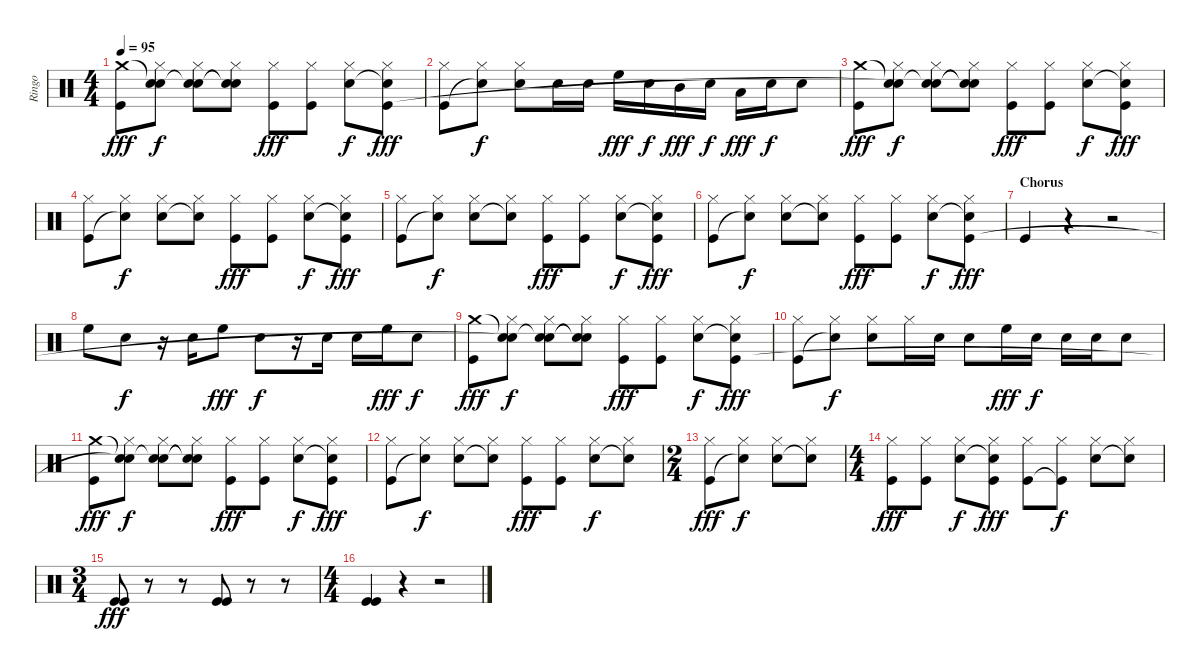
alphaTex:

\track ("Ringo" "Ringo") {instrument percussion}
\staff {score}
\articulation defaults
\ts (4 4)
\tempo 95
\clef neutral
\ks c
("Crash medium (hit)" "Kick (hit)").8{dy fff} ("Snare (hit)"{t} "Hi-Hat (closed)" "Snare (hit)").8{dy f} ("Snare (hit)"{t} "Hi-Hat (closed)" "Electric Snare (hit)").8 ("Snare (hit)"{t} "Hi-Hat (closed)" "Snare (hit)"{t}).8 ("Hi-Hat (closed)" "Kick (hit)").8{dy fff} ("Hi-Hat (closed)" "Kick (hit)").8 ("Hi-Hat (closed)" "Electric Snare (hit)").8{dy f} ("Hi-Hat (closed)" "Snare (hit)"{t} "Kick (hit)").8{dy fff} |
("Hi-Hat (closed)" "Kick (hit)").8 ("Hi-Hat (closed)" "Snare (hit)"{t}).8{dy f} ("Hi-Hat (closed)" "Electric Snare (hit)").8 "Electric Snare (hit)".16 "Electric Snare (hit)".16 "High Floor Tom (hit)".16{dy fff} "Electric Snare (hit)".16{dy f} "Mid Tom (hit)".16{dy fff} "Electric Snare (hit)".16{dy f} "Low Floor Tom (hit)".16{dy fff} "Electric Snare (hit)".16{dy f} "Electric Snare (hit)".8 |
("Crash medium (hit)" "Kick (hit)").8{dy fff} ("Snare (hit)"{t} "Hi-Hat (closed)" "Snare (hit)"{t}).8{dy f} ("Snare (hit)"{t} "Hi-Hat (closed)" "Electric Snare (hit)").8 ("Snare (hit)"{t} "Hi-Hat (closed)" "Snare (hit)"{t}).8 ("Hi-Hat (closed)" "Kick (hit)").8{dy fff} ("Hi-Hat (closed)" "Kick (hit)").8 ("Hi-Hat (closed)" "Electric Snare (hit)").8{dy f} ("Hi-Hat (closed)" "Snare (hit)"{t} "Kick (hit)").8{dy fff} |
("Hi-Hat (closed)" "Kick (hit)").8 ("Hi-Hat (closed)" "Snare (hit)"{t}).8{dy f} ("Hi-Hat (closed)" "Electric Snare (hit)").8 ("Hi-Hat (closed)" "Snare (hit)"{t}).8 ("Hi-Hat (closed)" "Kick (hit)").8{dy fff} ("Hi-Hat (closed)" "Kick (hit)").8 ("Hi-Hat (closed)" "Electric Snare (hit)").8{dy f} ("Hi-Hat (closed)" "Snare (hit)"{t} "Kick (hit)").8{dy fff} |
("Hi-Hat (closed)" "Kick (hit)").8 ("Hi-Hat (closed)" "Snare (hit)"{t}).8{dy f} ("Hi-Hat (closed)" "Electric Snare (hit)").8 ("Hi-Hat (closed)" "Snare (hit)"{t}).8 ("Hi-Hat (closed)" "Kick (hit)").8{dy fff} ("Hi-Hat (closed)" "Kick (hit)").8 ("Hi-Hat (closed)" "Electric Snare (hit)").8{dy f} ("Hi-Hat (closed)" "Snare (hit)"{t} "Kick (hit)").8{dy fff} |
("Hi-Hat (closed)" "Kick (hit)").8 ("Hi-Hat (closed)" "Snare (hit)"{t}).8{dy f} ("Hi-Hat (closed)" "Electric Snare (hit)").8 ("Hi-Hat (closed)" "Snare (hit)"{t}).8 ("Hi-Hat (closed)" "Kick (hit)").8{dy fff} ("Hi-Hat (closed)" "Kick (hit)").8 ("Hi-Hat (closed)" "Electric Snare (hit)").8{dy f} ("Hi-Hat (closed)" "Snare (hit)"{t} "Kick (hit)").8{dy fff} |
\section ("" "Chorus")
"Kick (hit)".4 r.4 r.2 |
"High Floor Tom (hit)".8 "Snare (hit) 2".8{dy f} r.16 "Snare (hit) 2".16 "High Floor Tom (hit)".8{dy fff} "Snare (hit) 2".8{dy f} r.16 "Snare (hit) 2".16 "Snare (hit) 2".16 "High Floor Tom (hit)".16{dy fff} "Snare (hit) 2".8{dy f} |
("Crash medium (hit)" "Kick (hit)").8{dy fff} ("Snare (hit)"{t} "Hi-Hat (closed)" "Snare (hit)"{t}).8{dy f} ("Snare (hit)"{t} "Hi-Hat (closed)" "Electric Snare (hit)").8 ("Snare (hit)"{t} "Hi-Hat (closed)" "Snare (hit)"{t}).8 ("Hi-Hat (closed)" "Kick (hit)").8{dy fff} ("Hi-Hat (closed)" "Kick (hit)").8 ("Hi-Hat (closed)" "Electric Snare (hit)").8{dy f} ("Hi-Hat (closed)" "Snare (hit)"{t} "Kick (hit)").8{dy fff} |
("Hi-Hat (closed)" "Kick (hit)").8 ("Hi-Hat (closed)" "Snare (hit)"{t}).8{dy f} ("Hi-Hat (closed)" "Electric Snare (hit)").8 "Hi-Hat (closed)".16 "Electric Snare (hit)".16 "Electric Snare (hit)".8 "High Floor Tom (hit)".16{dy fff} "Electric Snare (hit)".16{dy f} "Electric Snare (hit)".16 "Electric Snare (hit)".16 "Electric Snare (hit)".8 |
("Crash medium (hit)" "Kick (hit)").8{dy fff} ("Snare (hit)"{t} "Hi-Hat (closed)" "Snare (hit)"{t}).8{dy f} ("Snare (hit)"{t} "Hi-Hat (closed)" "Electric Snare (hit)").8 ("Snare (hit)"{t} "Hi-Hat (closed)" "Snare (hit)"{t}).8 ("Hi-Hat (closed)" "Kick (hit)").8{dy fff} ("Hi-Hat (closed)" "Kick (hit)").8 ("Hi-Hat (closed)" "Electric Snare (hit)").8{dy f} ("Hi-Hat (closed)" "Snare (hit)"{t} "Kick (hit)").8{dy fff} |
("Hi-Hat (closed)" "Kick (hit)").8 ("Hi-Hat (closed)" "Snare (hit)"{t}).8{dy f} ("Hi-Hat (closed)" "Electric Snare (hit)").8 ("Hi-Hat (closed)" "Snare (hit)"{t}).8 ("Hi-Hat (closed)" "Kick (hit)").8{dy fff} ("Hi-Hat (closed)" "Kick (hit)").8 ("Hi-Hat (closed)" "Electric Snare (hit)").8{dy f} ("Hi-Hat (closed)" "Snare (hit)"{t}).8 |
\ts (2 4)
("Hi-Hat (closed)" "Kick (hit)").8{dy fff} ("Hi-Hat (closed)" "Snare (hit)"{t}).8{dy f} ("Hi-Hat (closed)" "Electric Snare (hit)").8 ("Hi-Hat (closed)" "Snare (hit)"{t}).8 |
\ts (4 4)
("Hi-Hat (closed)" "Kick (hit)").8{dy fff} ("Hi-Hat (closed)" "Kick (hit)").8 ("Hi-Hat (closed)" "Electric Snare (hit)").8{dy f} ("Hi-Hat (closed)" "Snare (hit)"{t} "Kick (hit)").8{dy fff} ("Hi-Hat (closed)" "Kick (hit)").8 ("Hi-Hat (closed)" "Kick (hit)"{t}).8{dy f} ("Hi-Hat (closed)" "Electric Snare (hit)").8 ("Hi-Hat (closed)" "Snare (hit)"{t}).8 |
\ts (3 4)
("Kick (hit)" "Kick (hit)").8{dy fff} r.8 r.8 ("Kick (hit)" "Kick (hit)").8 r.8 r.8 |
\ts (4 4)
("Kick (hit)" "Kick (hit)").4 r.4 r.2
